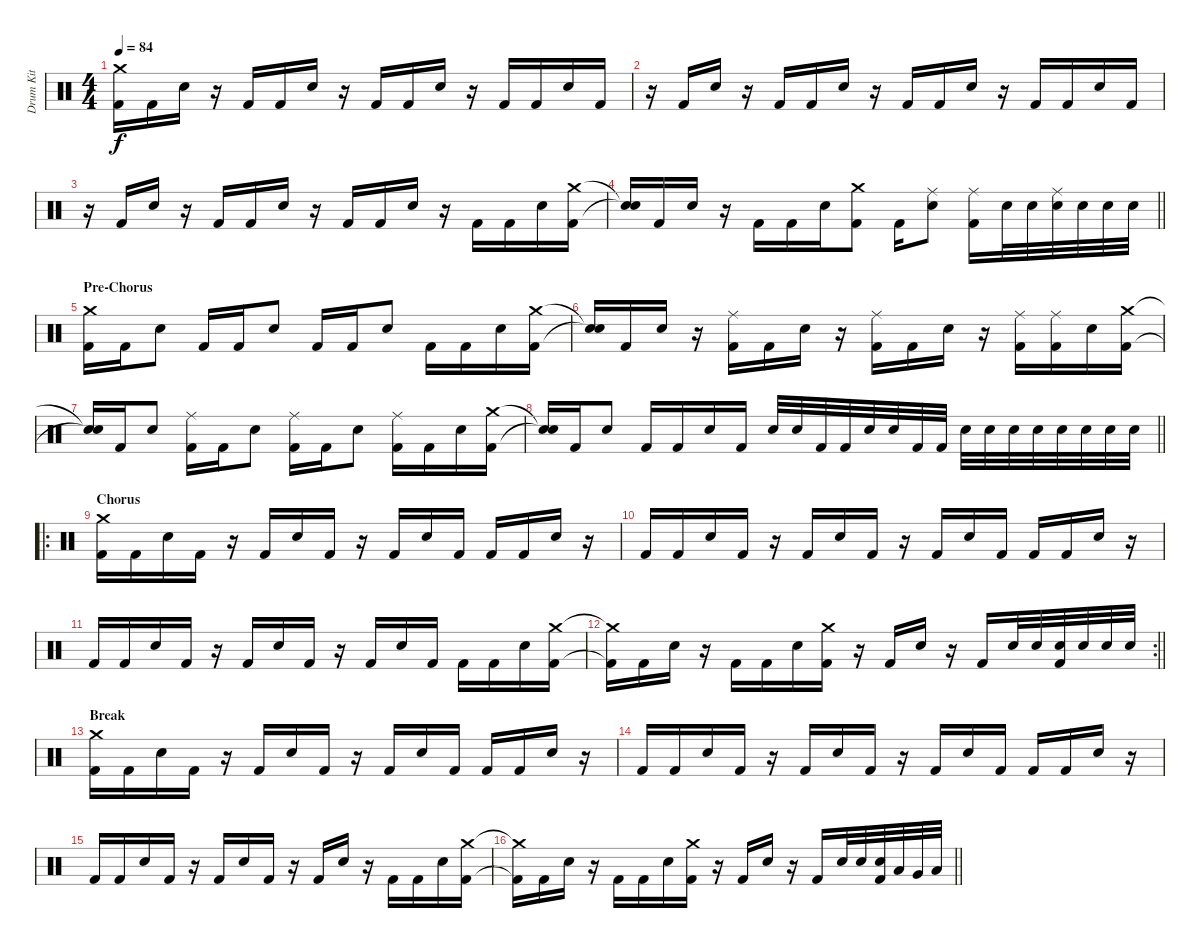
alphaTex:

\track ("Drum Kit" "Drum Kit") {instrument percussion}
\staff {score}
\articulation defaults
\ts (4 4)
\tempo 84
\clef neutral
\ks c
("Crash medium (hit)" "Kick (hit) 2").16{dy f} "Kick (hit) 2".16 "Electric Snare (hit)".16 r.16 "Kick (hit) 2".16 "Kick (hit) 2".16 "Electric Snare (hit)".16 r.16 "Kick (hit) 2".16 "Kick (hit) 2".16 "Electric Snare (hit)".16 r.16 "Kick (hit) 2".16 "Kick (hit) 2".16 "Electric Snare (hit)".16 "Kick (hit) 2".16 |
r.16 "Kick (hit) 2".16 "Electric Snare (hit)".16 r.16 "Kick (hit) 2".16 "Kick (hit) 2".16 "Electric Snare (hit)".16 r.16 "Kick (hit) 2".16 "Kick (hit) 2".16 "Electric Snare (hit)".16 r.16 "Kick (hit) 2".16 "Kick (hit) 2".16 "Electric Snare (hit)".16 "Kick (hit) 2".16 |
r.16 "Kick (hit) 2".16 "Electric Snare (hit)".16 r.16 "Kick (hit) 2".16 "Kick (hit) 2".16 "Electric Snare (hit)".16 r.16 "Kick (hit) 2".16 "Kick (hit) 2".16 "Electric Snare (hit)".16 r.16 "Kick (hit) 2".16 "Kick (hit) 2".16 "Electric Snare (hit)".16 ("Crash medium (hit)" "Kick (hit) 2").16 |
\barLineRight lightlight
("Snare (hit)"{t} "Snare (hit)"{t}).16 "Kick (hit) 2".16 "Electric Snare (hit)".16 r.16 "Kick (hit) 2".16 "Kick (hit) 2".16 "Electric Snare (hit)".16 ("Crash medium (hit)" "Kick (hit) 2").8 "Kick (hit) 2".16 ("Ride (middle)" "Electric Snare (hit)").8 ("Ride (middle)" "Kick (hit) 2").16 "Electric Snare (hit)".32 "Electric Snare (hit)".32 ("Ride (middle)" "Electric Snare (hit)").32 "Electric Snare (hit)".32 "Electric Snare (hit)".32 "Electric Snare (hit)".32 |
\section ("" "Pre-Chorus")
("Crash medium (hit)" "Kick (hit) 2").16 "Kick (hit) 2".16 "Electric Snare (hit)".8 "Kick (hit) 2".16 "Kick (hit) 2".16 "Electric Snare (hit)".8 "Kick (hit) 2".16 "Kick (hit) 2".16 "Electric Snare (hit)".8 "Kick (hit) 2".16 "Kick (hit) 2".16 "Electric Snare (hit)".16 ("Crash medium (hit)" "Kick (hit) 2").16 |
("Snare (hit)"{t} "Snare (hit)"{t}).16 "Kick (hit) 2".16 "Electric Snare (hit)".16 r.16 ("Ride (middle)" "Kick (hit) 2").16 "Kick (hit) 2".16 "Electric Snare (hit)".16 r.16 ("Ride (middle)" "Kick (hit) 2").16 "Kick (hit) 2".16 "Electric Snare (hit)".16 r.16 ("Ride (middle)" "Kick (hit) 2").16 ("Ride (middle)" "Kick (hit) 2").16 "Electric Snare (hit)".16 ("Crash medium (hit)" "Kick (hit) 2").16 |
("Snare (hit)"{t} "Snare (hit)"{t}).16 "Kick (hit) 2".16 "Electric Snare (hit)".8 ("Ride (middle)" "Kick (hit) 2").16 "Kick (hit) 2".16 "Electric Snare (hit)".8 ("Ride (middle)" "Kick (hit) 2").16 "Kick (hit) 2".16 "Electric Snare (hit)".8 ("Ride (middle)" "Kick (hit) 2").16 "Kick (hit) 2".16 "Electric Snare (hit)".16 ("Crash medium (hit)" "Kick (hit) 2").16 |
\barLineRight lightlight
("Snare (hit)"{t} "Snare (hit)"{t}).16 "Kick (hit) 2".16 "Electric Snare (hit)".8 "Kick (hit) 2".16 "Kick (hit) 2".16 "Electric Snare (hit)".16 "Kick (hit) 2".16 "Electric Snare (hit)".32 "Electric Snare (hit)".32 "Kick (hit) 2".32 "Kick (hit) 2".32 "Electric Snare (hit)".32 "Electric Snare (hit)".32 "Kick (hit) 2".32 "Kick (hit) 2".32 "Electric Snare (hit)".32 "Electric Snare (hit)".32 "Electric Snare (hit)".32 "Electric Snare (hit)".32 "Electric Snare (hit)".32 "Electric Snare (hit)".32 "Electric Snare (hit)".32 "Electric Snare (hit)".32 |
\ro
\section ("" "Chorus")
("Crash medium (hit)" "Kick (hit) 2").16 "Kick (hit) 2".16 "Electric Snare (hit)".16 "Kick (hit) 2".16 r.16 "Kick (hit) 2".16 "Electric Snare (hit)".16 "Kick (hit) 2".16 r.16 "Kick (hit) 2".16 "Electric Snare (hit)".16 "Kick (hit) 2".16 "Kick (hit) 2".16 "Kick (hit) 2".16 "Electric Snare (hit)".16 r.16 |
"Kick (hit) 2".16 "Kick (hit) 2".16 "Electric Snare (hit)".16 "Kick (hit) 2".16 r.16 "Kick (hit) 2".16 "Electric Snare (hit)".16 "Kick (hit) 2".16 r.16 "Kick (hit) 2".16 "Electric Snare (hit)".16 "Kick (hit) 2".16 "Kick (hit) 2".16 "Kick (hit) 2".16 "Electric Snare (hit)".16 r.16 |
"Kick (hit) 2".16 "Kick (hit) 2".16 "Electric Snare (hit)".16 "Kick (hit) 2".16 r.16 "Kick (hit) 2".16 "Electric Snare (hit)".16 "Kick (hit) 2".16 r.16 "Kick (hit) 2".16 "Electric Snare (hit)".16 "Kick (hit) 2".16 "Kick (hit) 2".16 "Kick (hit) 2".16 "Electric Snare (hit)".16 ("Crash medium (hit)" "Kick (hit) 2").16 |
\rc 2
\barLineRight lightlight
("Crash medium (hit)"{t} "Kick (hit) 2"{t}).16 "Kick (hit) 2".16 "Electric Snare (hit)".16 r.16 "Kick (hit) 2".16 "Kick (hit) 2".16 "Electric Snare (hit)".16 ("Crash medium (hit)" "Kick (hit) 2").16 r.16 "Kick (hit) 2".16 "Electric Snare (hit)".16 r.16 "Kick (hit) 2".16 "Electric Snare (hit)".32 "Electric Snare (hit)".32 ("Electric Snare (hit)" "Kick (hit) 2").32 "Electric Snare (hit)".32 "Electric Snare (hit)".32 "Electric Snare (hit)".32 |
\section ("" "Break")
("Crash medium (hit)" "Kick (hit) 2").16 "Kick (hit) 2".16 "Electric Snare (hit)".16 "Kick (hit) 2".16 r.16 "Kick (hit) 2".16 "Electric Snare (hit)".16 "Kick (hit) 2".16 r.16 "Kick (hit) 2".16 "Electric Snare (hit)".16 "Kick (hit) 2".16 "Kick (hit) 2".16 "Kick (hit) 2".16 "Electric Snare (hit)".16 r.16 |
"Kick (hit) 2".16 "Kick (hit) 2".16 "Electric Snare (hit)".16 "Kick (hit) 2".16 r.16 "Kick (hit) 2".16 "Electric Snare (hit)".16 "Kick (hit) 2".16 r.16 "Kick (hit) 2".16 "Electric Snare (hit)".16 "Kick (hit) 2".16 "Kick (hit) 2".16 "Kick (hit) 2".16 "Electric Snare (hit)".16 r.16 |
"Kick (hit) 2".16 "Kick (hit) 2".16 "Electric Snare (hit)".16 "Kick (hit) 2".16 r.16 "Kick (hit) 2".16 "Electric Snare (hit)".16 "Kick (hit) 2".16 r.16 "Kick (hit) 2".16 "Electric Snare (hit)".16 r.16 "Kick (hit) 2".16 "Kick (hit) 2".16 "Electric Snare (hit)".16 ("Crash medium (hit)" "Kick (hit) 2").16 |
\barLineRight lightlight
("Crash medium (hit)"{t} "Kick (hit) 2"{t}).16 "Kick (hit) 2".16 "Electric Snare (hit)".16 r.16 "Kick (hit) 2".16 "Kick (hit) 2".16 "Electric Snare (hit)".16 ("Crash medium (hit)" "Kick (hit) 2").16 r.16 "Kick (hit) 2".16 "Electric Snare (hit)".16 r.16 "Kick (hit) 2".16 "Electric Snare (hit)".32 "Electric Snare (hit)".32 ("Electric Snare (hit)" "Kick (hit) 2").32 "Low Tom (hit)".32 "Very Low Tom (hit)".32 "Low Floor Tom (hit)".32
